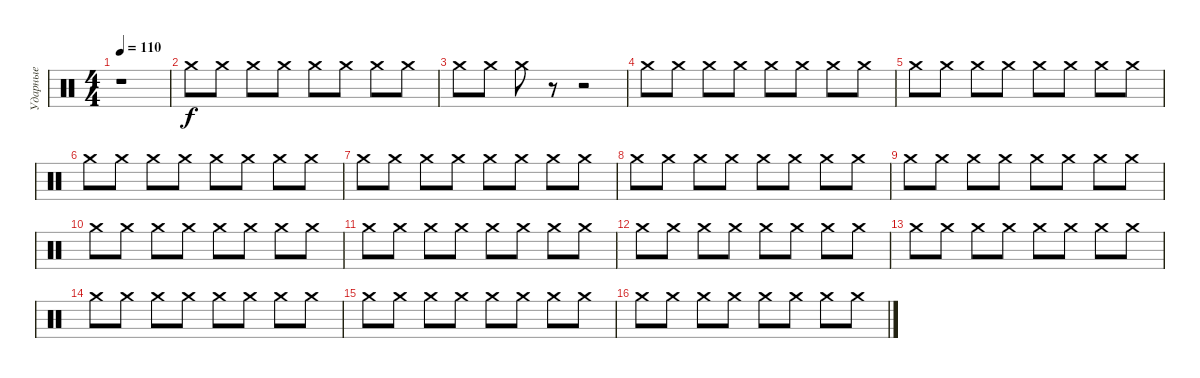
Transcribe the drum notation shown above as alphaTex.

\track ("Ударные" "Ударные") {instrument percussion}
\staff {score}
\articulation defaults
\ts (4 4)
\tempo 110
\clef neutral
\ks c
r.1{dy f} |
"Crash medium (hit)".8 "Crash medium (hit)".8 "Crash medium (hit)".8 "Crash medium (hit)".8 "Crash medium (hit)".8 "Crash medium (hit)".8 "Crash medium (hit)".8 "Crash medium (hit)".8 |
"Crash medium (hit)".8 "Crash medium (hit)".8 "Crash medium (hit)".8 r.8 r.2 |
"Crash medium (hit)".8 "Crash medium (hit)".8 "Crash medium (hit)".8 "Crash medium (hit)".8 "Crash medium (hit)".8 "Crash medium (hit)".8 "Crash medium (hit)".8 "Crash medium (hit)".8 |
"Crash medium (hit)".8 "Crash medium (hit)".8 "Crash medium (hit)".8 "Crash medium (hit)".8 "Crash medium (hit)".8 "Crash medium (hit)".8 "Crash medium (hit)".8 "Crash medium (hit)".8 |
"Crash medium (hit)".8 "Crash medium (hit)".8 "Crash medium (hit)".8 "Crash medium (hit)".8 "Crash medium (hit)".8 "Crash medium (hit)".8 "Crash medium (hit)".8 "Crash medium (hit)".8 |
"Crash medium (hit)".8 "Crash medium (hit)".8 "Crash medium (hit)".8 "Crash medium (hit)".8 "Crash medium (hit)".8 "Crash medium (hit)".8 "Crash medium (hit)".8 "Crash medium (hit)".8 |
"Crash medium (hit)".8 "Crash medium (hit)".8 "Crash medium (hit)".8 "Crash medium (hit)".8 "Crash medium (hit)".8 "Crash medium (hit)".8 "Crash medium (hit)".8 "Crash medium (hit)".8 |
"Crash medium (hit)".8 "Crash medium (hit)".8 "Crash medium (hit)".8 "Crash medium (hit)".8 "Crash medium (hit)".8 "Crash medium (hit)".8 "Crash medium (hit)".8 "Crash medium (hit)".8 |
"Crash medium (hit)".8 "Crash medium (hit)".8 "Crash medium (hit)".8 "Crash medium (hit)".8 "Crash medium (hit)".8 "Crash medium (hit)".8 "Crash medium (hit)".8 "Crash medium (hit)".8 |
"Crash medium (hit)".8 "Crash medium (hit)".8 "Crash medium (hit)".8 "Crash medium (hit)".8 "Crash medium (hit)".8 "Crash medium (hit)".8 "Crash medium (hit)".8 "Crash medium (hit)".8 |
"Crash medium (hit)".8 "Crash medium (hit)".8 "Crash medium (hit)".8 "Crash medium (hit)".8 "Crash medium (hit)".8 "Crash medium (hit)".8 "Crash medium (hit)".8 "Crash medium (hit)".8 |
"Crash medium (hit)".8 "Crash medium (hit)".8 "Crash medium (hit)".8 "Crash medium (hit)".8 "Crash medium (hit)".8 "Crash medium (hit)".8 "Crash medium (hit)".8 "Crash medium (hit)".8 |
"Crash medium (hit)".8 "Crash medium (hit)".8 "Crash medium (hit)".8 "Crash medium (hit)".8 "Crash medium (hit)".8 "Crash medium (hit)".8 "Crash medium (hit)".8 "Crash medium (hit)".8 |
"Crash medium (hit)".8 "Crash medium (hit)".8 "Crash medium (hit)".8 "Crash medium (hit)".8 "Crash medium (hit)".8 "Crash medium (hit)".8 "Crash medium (hit)".8 "Crash medium (hit)".8 |
"Crash medium (hit)".8 "Crash medium (hit)".8 "Crash medium (hit)".8 "Crash medium (hit)".8 "Crash medium (hit)".8 "Crash medium (hit)".8 "Crash medium (hit)".8 "Crash medium (hit)".8
